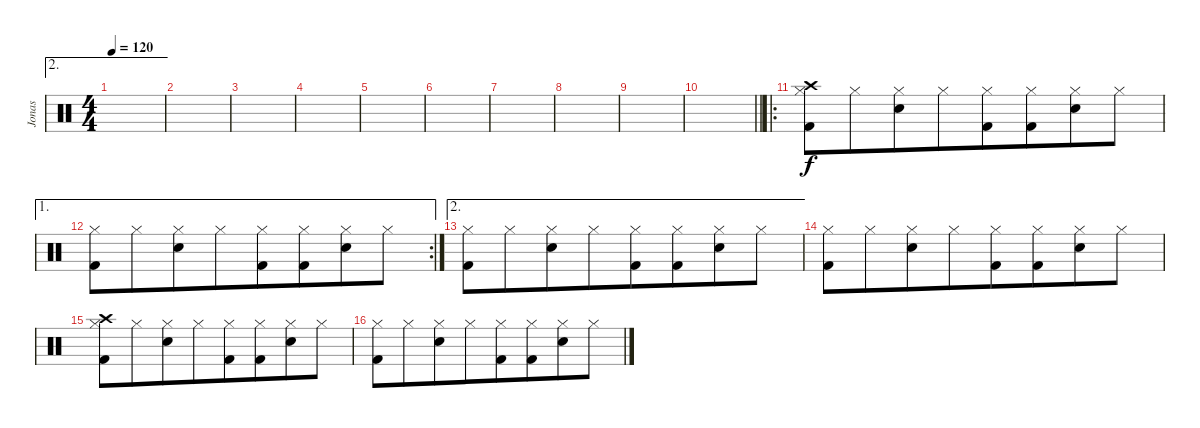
\track ("Jonas" "Jonas") {instrument percussion}
\staff {score}
\articulation defaults
\ae 2
\ts (4 4)
\tempo 120
\clef neutral
\ks c
|
|
|
|
|
|
|
|
|
\barLineRight lightlight
|
\ro
("Crash high (hit)" "Hi-Hat (closed)" "Kick (hit) 2").8 "Hi-Hat (closed)".8{beam merge} ("Hi-Hat (closed)" "Snare (hit) 2").8 "Hi-Hat (closed)".8{beam merge} ("Hi-Hat (closed)" "Kick (hit) 2").8 ("Hi-Hat (closed)" "Kick (hit) 2").8{beam merge} ("Hi-Hat (closed)" "Snare (hit) 2").8 "Hi-Hat (closed)".8 |
\ae 1
\rc 2
("Hi-Hat (closed)" "Kick (hit) 2").8 "Hi-Hat (closed)".8{beam merge} ("Hi-Hat (closed)" "Snare (hit) 2").8 "Hi-Hat (closed)".8{beam merge} ("Hi-Hat (closed)" "Kick (hit) 2").8 ("Hi-Hat (closed)" "Kick (hit) 2").8{beam merge} ("Hi-Hat (closed)" "Snare (hit) 2").8 "Hi-Hat (closed)".8 |
\ae 2
("Hi-Hat (closed)" "Kick (hit) 2").8 "Hi-Hat (closed)".8{beam merge} ("Hi-Hat (closed)" "Snare (hit) 2").8 "Hi-Hat (closed)".8{beam merge} ("Hi-Hat (closed)" "Kick (hit) 2").8 ("Hi-Hat (closed)" "Kick (hit) 2").8{beam merge} ("Hi-Hat (closed)" "Snare (hit) 2").8 "Hi-Hat (closed)".8 |
("Hi-Hat (closed)" "Kick (hit) 2").8 "Hi-Hat (closed)".8{beam merge} ("Hi-Hat (closed)" "Snare (hit) 2").8 "Hi-Hat (closed)".8{beam merge} ("Hi-Hat (closed)" "Kick (hit) 2").8 ("Hi-Hat (closed)" "Kick (hit) 2").8{beam merge} ("Hi-Hat (closed)" "Snare (hit) 2").8 "Hi-Hat (closed)".8 |
("Crash high (hit)" "Hi-Hat (closed)" "Kick (hit) 2").8 "Hi-Hat (closed)".8{beam merge} ("Hi-Hat (closed)" "Snare (hit) 2").8 "Hi-Hat (closed)".8{beam merge} ("Hi-Hat (closed)" "Kick (hit) 2").8 ("Hi-Hat (closed)" "Kick (hit) 2").8{beam merge} ("Hi-Hat (closed)" "Snare (hit) 2").8 "Hi-Hat (closed)".8 |
("Hi-Hat (closed)" "Kick (hit) 2").8 "Hi-Hat (closed)".8{beam merge} ("Hi-Hat (closed)" "Snare (hit) 2").8 "Hi-Hat (closed)".8{beam merge} ("Hi-Hat (closed)" "Kick (hit) 2").8 ("Hi-Hat (closed)" "Kick (hit) 2").8{beam merge} ("Hi-Hat (closed)" "Snare (hit) 2").8 "Hi-Hat (closed)".8
